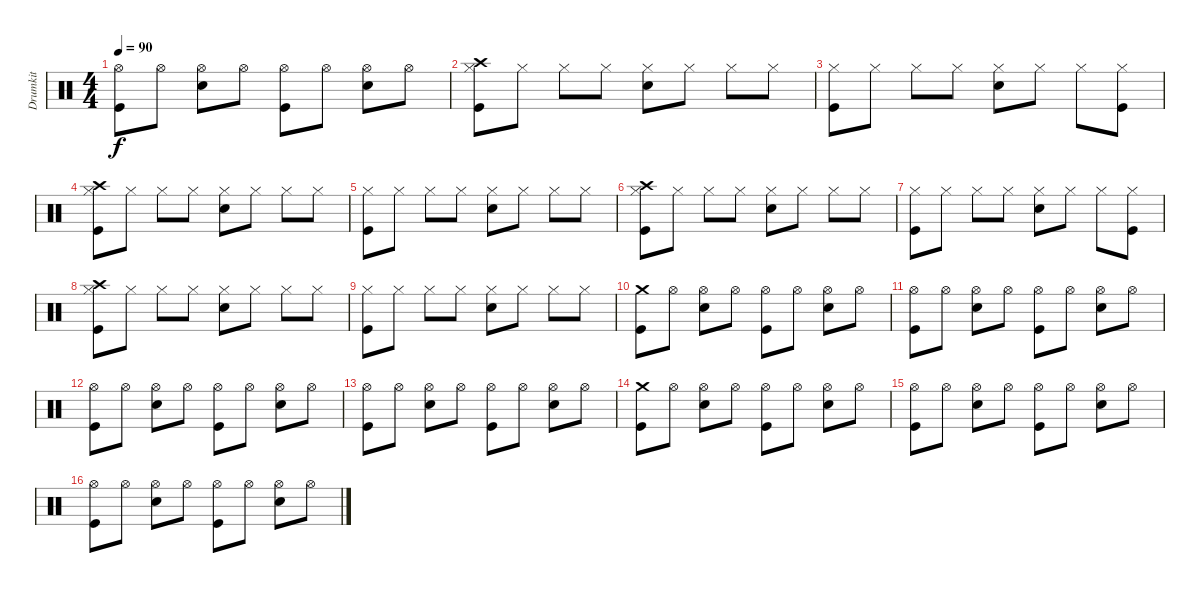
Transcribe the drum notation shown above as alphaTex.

\track ("Drumkit" "Drumkit") {instrument percussion}
\staff {score}
\articulation defaults
\ts (4 4)
\tempo 90
\clef neutral
\ks c
("Hi-Hat (open)" "Kick (hit)").8{dy f} "Hi-Hat (open)".8 ("Hi-Hat (open)" "Snare (hit) 2").8 "Hi-Hat (open)".8 ("Hi-Hat (open)" "Kick (hit)").8 "Hi-Hat (open)".8 ("Hi-Hat (open)" "Snare (hit) 2").8 "Hi-Hat (open)".8 |
("Crash high (hit)" "Hi-Hat (closed)" "Kick (hit)").8 "Hi-Hat (closed)".8 "Hi-Hat (closed)".8 "Hi-Hat (closed)".8 ("Hi-Hat (closed)" "Snare (hit) 2").8 "Hi-Hat (closed)".8 "Hi-Hat (closed)".8 "Hi-Hat (closed)".8 |
("Hi-Hat (closed)" "Kick (hit)").8 "Hi-Hat (closed)".8 "Hi-Hat (closed)".8 "Hi-Hat (closed)".8 ("Hi-Hat (closed)" "Snare (hit) 2").8 "Hi-Hat (closed)".8 "Hi-Hat (closed)".8 ("Hi-Hat (closed)" "Kick (hit)").8 |
("Crash high (hit)" "Hi-Hat (closed)" "Kick (hit)").8 "Hi-Hat (closed)".8 "Hi-Hat (closed)".8 "Hi-Hat (closed)".8 ("Hi-Hat (closed)" "Snare (hit) 2").8 "Hi-Hat (closed)".8 "Hi-Hat (closed)".8 "Hi-Hat (closed)".8 |
("Hi-Hat (closed)" "Kick (hit)").8 "Hi-Hat (closed)".8 "Hi-Hat (closed)".8 "Hi-Hat (closed)".8 ("Hi-Hat (closed)" "Snare (hit) 2").8 "Hi-Hat (closed)".8 "Hi-Hat (closed)".8 "Hi-Hat (closed)".8 |
("Crash high (hit)" "Hi-Hat (closed)" "Kick (hit)").8 "Hi-Hat (closed)".8 "Hi-Hat (closed)".8 "Hi-Hat (closed)".8 ("Hi-Hat (closed)" "Snare (hit) 2").8 "Hi-Hat (closed)".8 "Hi-Hat (closed)".8 "Hi-Hat (closed)".8 |
("Hi-Hat (closed)" "Kick (hit)").8 "Hi-Hat (closed)".8 "Hi-Hat (closed)".8 "Hi-Hat (closed)".8 ("Hi-Hat (closed)" "Snare (hit) 2").8 "Hi-Hat (closed)".8 "Hi-Hat (closed)".8 ("Hi-Hat (closed)" "Kick (hit)").8 |
("Crash high (hit)" "Hi-Hat (closed)" "Kick (hit)").8 "Hi-Hat (closed)".8 "Hi-Hat (closed)".8 "Hi-Hat (closed)".8 ("Hi-Hat (closed)" "Snare (hit) 2").8 "Hi-Hat (closed)".8 "Hi-Hat (closed)".8 "Hi-Hat (closed)".8 |
("Hi-Hat (closed)" "Kick (hit)").8 "Hi-Hat (closed)".8 "Hi-Hat (closed)".8 "Hi-Hat (closed)".8 ("Hi-Hat (closed)" "Snare (hit) 2").8 "Hi-Hat (closed)".8 "Hi-Hat (closed)".8 "Hi-Hat (closed)".8 |
("Crash medium (hit)" "Kick (hit)").8 "Hi-Hat (open)".8 ("Hi-Hat (open)" "Snare (hit) 2").8 "Hi-Hat (open)".8 ("Hi-Hat (open)" "Kick (hit)").8 "Hi-Hat (open)".8 ("Hi-Hat (open)" "Snare (hit) 2").8 "Hi-Hat (open)".8 |
("Hi-Hat (open)" "Kick (hit)").8 "Hi-Hat (open)".8 ("Hi-Hat (open)" "Snare (hit) 2").8 "Hi-Hat (open)".8 ("Hi-Hat (open)" "Kick (hit)").8 "Hi-Hat (open)".8 ("Hi-Hat (open)" "Snare (hit) 2").8 "Hi-Hat (open)".8 |
("Hi-Hat (open)" "Kick (hit)").8 "Hi-Hat (open)".8 ("Hi-Hat (open)" "Snare (hit) 2").8 "Hi-Hat (open)".8 ("Hi-Hat (open)" "Kick (hit)").8 "Hi-Hat (open)".8 ("Hi-Hat (open)" "Snare (hit) 2").8 "Hi-Hat (open)".8 |
("Hi-Hat (open)" "Kick (hit)").8 "Hi-Hat (open)".8 ("Hi-Hat (open)" "Snare (hit) 2").8 "Hi-Hat (open)".8 ("Hi-Hat (open)" "Kick (hit)").8 "Hi-Hat (open)".8 ("Hi-Hat (open)" "Snare (hit) 2").8 "Hi-Hat (open)".8 |
("Crash medium (hit)" "Kick (hit)").8 "Hi-Hat (open)".8 ("Hi-Hat (open)" "Snare (hit) 2").8 "Hi-Hat (open)".8 ("Hi-Hat (open)" "Kick (hit)").8 "Hi-Hat (open)".8 ("Hi-Hat (open)" "Snare (hit) 2").8 "Hi-Hat (open)".8 |
("Hi-Hat (open)" "Kick (hit)").8 "Hi-Hat (open)".8 ("Hi-Hat (open)" "Snare (hit) 2").8 "Hi-Hat (open)".8 ("Hi-Hat (open)" "Kick (hit)").8 "Hi-Hat (open)".8 ("Hi-Hat (open)" "Snare (hit) 2").8 "Hi-Hat (open)".8 |
("Hi-Hat (open)" "Kick (hit)").8 "Hi-Hat (open)".8 ("Hi-Hat (open)" "Snare (hit) 2").8 "Hi-Hat (open)".8 ("Hi-Hat (open)" "Kick (hit)").8 "Hi-Hat (open)".8 ("Hi-Hat (open)" "Snare (hit) 2").8 "Hi-Hat (open)".8
